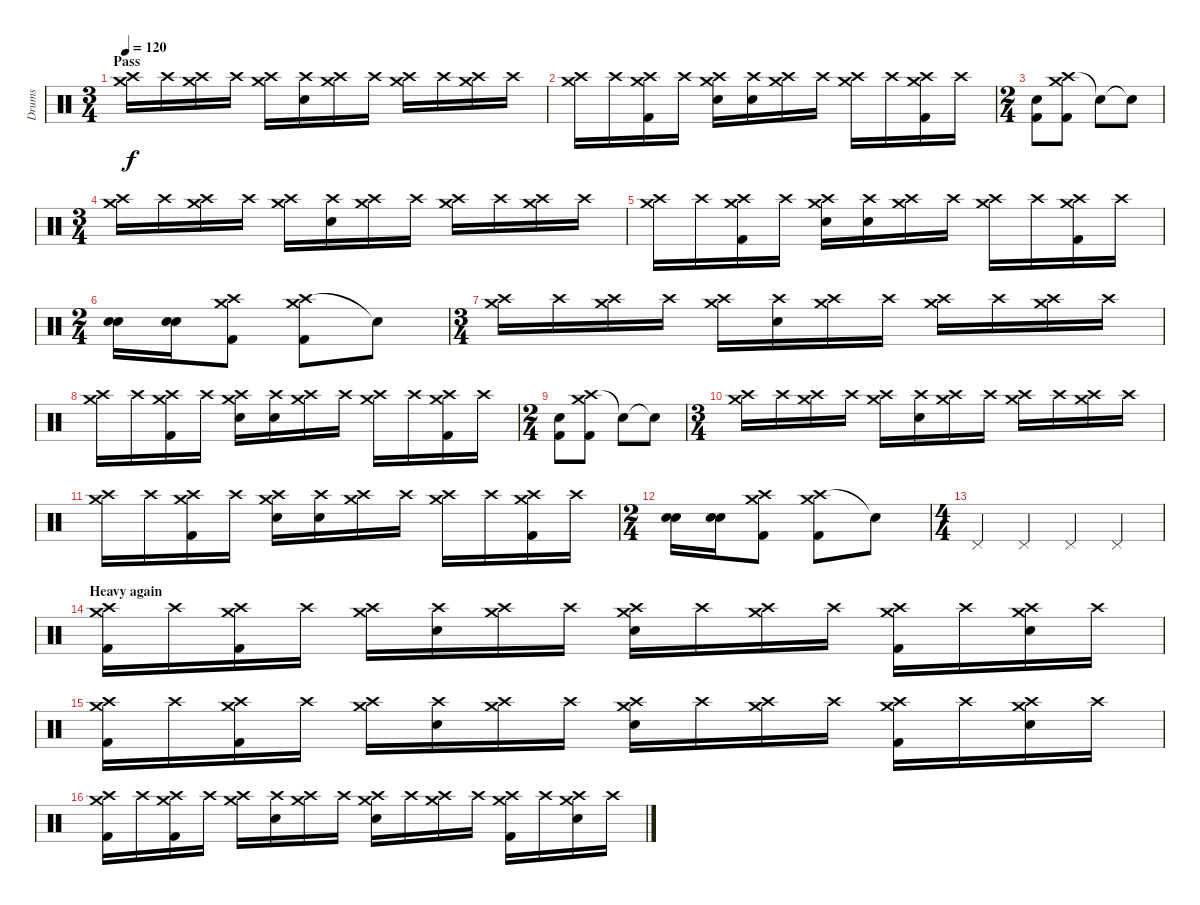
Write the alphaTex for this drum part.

\track ("Drums" "Drums") {instrument percussion}
\staff {score}
\articulation defaults
\ts (3 4)
\section ("" "Pass")
\tempo 120
\clef neutral
\ks c
("Crash high (hit)" "Crash medium (hit)").16{dy f} "Crash high (hit)"{x}.16 ("Crash high (hit)"{x} "Crash medium (hit)"{x}).16 "Crash high (hit)"{x}.16 ("Crash high (hit)" "Crash medium (hit)").16 ("Crash high (hit)"{x} "Snare (hit)"{x}).16 ("Crash high (hit)"{x} "Crash medium (hit)"{x}).16 "Crash high (hit)"{x}.16 ("Crash high (hit)" "Crash medium (hit)").16 "Crash high (hit)"{x}.16 ("Crash high (hit)"{x} "Crash medium (hit)"{x}).16 "Crash high (hit)"{x}.16 |
("Crash high (hit)" "Crash medium (hit)").16 "Crash high (hit)"{x}.16 ("Crash high (hit)"{x} "Crash medium (hit)"{x} "Kick (hit) 2").16 "Crash high (hit)"{x}.16 ("Crash high (hit)" "Crash medium (hit)" "Electric Snare (hit)").16 ("Crash high (hit)"{x} "Snare (hit)"{x}).16 ("Crash high (hit)"{x} "Crash medium (hit)"{x}).16 "Crash high (hit)"{x}.16 ("Crash high (hit)" "Crash medium (hit)").16 "Crash high (hit)"{x}.16 ("Crash high (hit)"{x} "Crash medium (hit)"{x} "Kick (hit) 2").16 "Crash high (hit)"{x}.16 |
\ts (2 4)
("Electric Snare (hit)" "Kick (hit) 2").8 ("Crash high (hit)" "Crash medium (hit)" "Kick (hit) 2").8 "Snare (hit)"{t}.8 "Snare (hit)"{t}.8 |
\ts (3 4)
("Crash high (hit)" "Crash medium (hit)").16 "Crash high (hit)"{x}.16 ("Crash high (hit)"{x} "Crash medium (hit)"{x}).16 "Crash high (hit)"{x}.16 ("Crash high (hit)" "Crash medium (hit)").16 ("Crash high (hit)"{x} "Snare (hit)"{x}).16 ("Crash high (hit)"{x} "Crash medium (hit)"{x}).16 "Crash high (hit)"{x}.16 ("Crash high (hit)" "Crash medium (hit)").16 "Crash high (hit)"{x}.16 ("Crash high (hit)"{x} "Crash medium (hit)"{x}).16 "Crash high (hit)"{x}.16 |
("Crash high (hit)" "Crash medium (hit)").16 "Crash high (hit)"{x}.16 ("Crash high (hit)"{x} "Crash medium (hit)"{x} "Kick (hit) 2").16 "Crash high (hit)"{x}.16 ("Crash high (hit)" "Crash medium (hit)" "Electric Snare (hit)").16 ("Crash high (hit)"{x} "Snare (hit)"{x}).16 ("Crash high (hit)"{x} "Crash medium (hit)"{x}).16 "Crash high (hit)"{x}.16 ("Crash high (hit)" "Crash medium (hit)").16 "Crash high (hit)"{x}.16 ("Crash high (hit)"{x} "Crash medium (hit)"{x} "Kick (hit) 2").16 "Crash high (hit)"{x}.16 |
\ts (2 4)
("Electric Snare (hit)" "Snare (hit) 2").16 ("Electric Snare (hit)" "Snare (hit) 2").16 ("Crash high (hit)" "Crash medium (hit)" "Kick (hit) 2").8 ("Crash high (hit)" "Crash medium (hit)" "Kick (hit) 2").8 "Snare (hit)"{t}.8 |
\ts (3 4)
("Crash high (hit)" "Crash medium (hit)").16 "Crash high (hit)"{x}.16 ("Crash high (hit)"{x} "Crash medium (hit)"{x}).16 "Crash high (hit)"{x}.16 ("Crash high (hit)" "Crash medium (hit)").16 ("Crash high (hit)"{x} "Snare (hit)"{x}).16 ("Crash high (hit)"{x} "Crash medium (hit)"{x}).16 "Crash high (hit)"{x}.16 ("Crash high (hit)" "Crash medium (hit)").16 "Crash high (hit)"{x}.16 ("Crash high (hit)"{x} "Crash medium (hit)"{x}).16 "Crash high (hit)"{x}.16 |
("Crash high (hit)" "Crash medium (hit)").16 "Crash high (hit)"{x}.16 ("Crash high (hit)"{x} "Crash medium (hit)"{x} "Kick (hit) 2").16 "Crash high (hit)"{x}.16 ("Crash high (hit)" "Crash medium (hit)" "Electric Snare (hit)").16 ("Crash high (hit)"{x} "Snare (hit)"{x}).16 ("Crash high (hit)"{x} "Crash medium (hit)"{x}).16 "Crash high (hit)"{x}.16 ("Crash high (hit)" "Crash medium (hit)").16 "Crash high (hit)"{x}.16 ("Crash high (hit)"{x} "Crash medium (hit)"{x} "Kick (hit) 2").16 "Crash high (hit)"{x}.16 |
\ts (2 4)
("Electric Snare (hit)" "Kick (hit) 2").8 ("Crash high (hit)" "Crash medium (hit)" "Kick (hit) 2").8 "Snare (hit)"{t}.8 "Snare (hit)"{t}.8 |
\ts (3 4)
("Crash high (hit)" "Crash medium (hit)").16 "Crash high (hit)"{x}.16 ("Crash high (hit)"{x} "Crash medium (hit)"{x}).16 "Crash high (hit)"{x}.16 ("Crash high (hit)" "Crash medium (hit)").16 ("Crash high (hit)"{x} "Snare (hit)"{x}).16 ("Crash high (hit)"{x} "Crash medium (hit)"{x}).16 "Crash high (hit)"{x}.16 ("Crash high (hit)" "Crash medium (hit)").16 "Crash high (hit)"{x}.16 ("Crash high (hit)"{x} "Crash medium (hit)"{x}).16 "Crash high (hit)"{x}.16 |
("Crash high (hit)" "Crash medium (hit)").16 "Crash high (hit)"{x}.16 ("Crash high (hit)"{x} "Crash medium (hit)"{x} "Kick (hit) 2").16 "Crash high (hit)"{x}.16 ("Crash high (hit)" "Crash medium (hit)" "Electric Snare (hit)").16 ("Crash high (hit)"{x} "Snare (hit)"{x}).16 ("Crash high (hit)"{x} "Crash medium (hit)"{x}).16 "Crash high (hit)"{x}.16 ("Crash high (hit)" "Crash medium (hit)").16 "Crash high (hit)"{x}.16 ("Crash high (hit)"{x} "Crash medium (hit)"{x} "Kick (hit) 2").16 "Crash high (hit)"{x}.16 |
\ts (2 4)
("Electric Snare (hit)" "Snare (hit) 2").16 ("Electric Snare (hit)" "Snare (hit) 2").16 ("Crash high (hit)" "Crash medium (hit)" "Kick (hit) 2").8 ("Crash high (hit)" "Crash medium (hit)" "Kick (hit) 2").8 "Snare (hit)"{t}.8 |
\ts (4 4)
"Pedal Hi-Hat (hit)".4 "Pedal Hi-Hat (hit)".4 "Pedal Hi-Hat (hit)".4 "Pedal Hi-Hat (hit)".4 |
\section ("" "Heavy again")
("Crash high (hit)" "Crash medium (hit)" "Kick (hit) 2").16 "Crash high (hit)"{x}.16 ("Crash high (hit)"{x} "Crash medium (hit)"{x} "Kick (hit) 2").16 "Crash high (hit)"{x}.16 ("Crash high (hit)" "Crash medium (hit)").16 ("Crash high (hit)"{x} "Snare (hit)"{x}).16 ("Crash high (hit)"{x} "Crash medium (hit)"{x}).16 "Crash high (hit)"{x}.16 ("Crash high (hit)" "Crash medium (hit)" "Electric Snare (hit)").16 "Crash high (hit)"{x}.16 ("Crash high (hit)"{x} "Crash medium (hit)"{x}).16 "Crash high (hit)"{x}.16 ("Crash high (hit)" "Crash medium (hit)" "Kick (hit) 2").16 "Crash high (hit)"{x}.16 ("Crash high (hit)"{x} "Crash medium (hit)"{x} "Electric Snare (hit)").16 "Crash high (hit)"{x}.16 |
("Crash high (hit)" "Crash medium (hit)" "Kick (hit) 2").16 "Crash high (hit)"{x}.16 ("Crash high (hit)"{x} "Crash medium (hit)"{x} "Kick (hit) 2").16 "Crash high (hit)"{x}.16 ("Crash high (hit)" "Crash medium (hit)").16 ("Crash high (hit)"{x} "Snare (hit)"{x}).16 ("Crash high (hit)"{x} "Crash medium (hit)"{x}).16 "Crash high (hit)"{x}.16 ("Crash high (hit)" "Crash medium (hit)" "Electric Snare (hit)").16 "Crash high (hit)"{x}.16 ("Crash high (hit)"{x} "Crash medium (hit)"{x}).16 "Crash high (hit)"{x}.16 ("Crash high (hit)" "Crash medium (hit)" "Kick (hit) 2").16 "Crash high (hit)"{x}.16 ("Crash high (hit)"{x} "Crash medium (hit)"{x} "Electric Snare (hit)").16 "Crash high (hit)"{x}.16 |
("Crash high (hit)" "Crash medium (hit)" "Kick (hit) 2").16 "Crash high (hit)"{x}.16 ("Crash high (hit)"{x} "Crash medium (hit)"{x} "Kick (hit) 2").16 "Crash high (hit)"{x}.16 ("Crash high (hit)" "Crash medium (hit)").16 ("Crash high (hit)"{x} "Snare (hit)"{x}).16 ("Crash high (hit)"{x} "Crash medium (hit)"{x}).16 "Crash high (hit)"{x}.16 ("Crash high (hit)" "Crash medium (hit)" "Electric Snare (hit)").16 "Crash high (hit)"{x}.16 ("Crash high (hit)"{x} "Crash medium (hit)"{x}).16 "Crash high (hit)"{x}.16 ("Crash high (hit)" "Crash medium (hit)" "Kick (hit) 2").16 "Crash high (hit)"{x}.16 ("Crash high (hit)"{x} "Crash medium (hit)"{x} "Electric Snare (hit)").16 "Crash high (hit)"{x}.16
